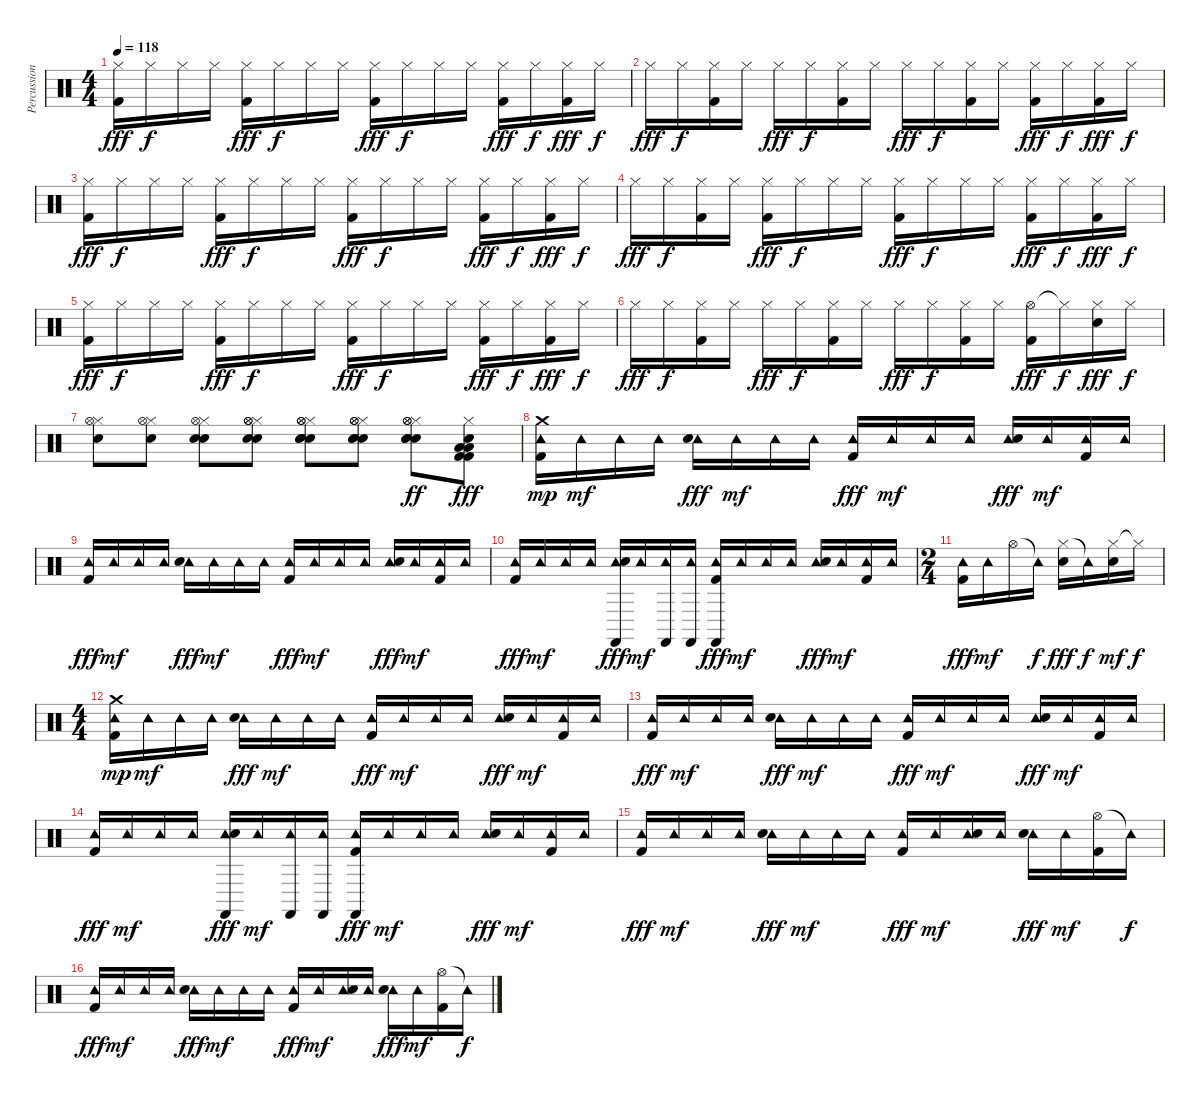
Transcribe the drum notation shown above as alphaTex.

\track ("Percussion" "Percussion") {instrument percussion}
\staff {score}
\articulation defaults
\ts (4 4)
\tempo 118
\clef neutral
\ks c
("Hi-Hat (closed)" "Kick (hit) 2").16{dy fff} "Hi-Hat (closed)".16{dy f} "Hi-Hat (closed)".16 "Hi-Hat (closed)".16 ("Hi-Hat (closed)" "Kick (hit) 2").16{dy fff} "Hi-Hat (closed)".16{dy f} "Hi-Hat (closed)".16 "Hi-Hat (closed)".16 ("Hi-Hat (closed)" "Kick (hit) 2").16{dy fff} "Hi-Hat (closed)".16{dy f} "Hi-Hat (closed)".16 "Hi-Hat (closed)".16 ("Hi-Hat (closed)" "Kick (hit) 2").16{dy fff} "Hi-Hat (closed)".16{dy f} ("Hi-Hat (closed)" "Kick (hit) 2").16{dy fff} "Hi-Hat (closed)".16{dy f} |
"Hi-Hat (closed)".16{dy fff} "Hi-Hat (closed)".16{dy f} ("Hi-Hat (closed)" "Kick (hit) 2").16 "Hi-Hat (closed)".16 "Hi-Hat (closed)".16{dy fff} "Hi-Hat (closed)".16{dy f} ("Hi-Hat (closed)" "Kick (hit) 2").16 "Hi-Hat (closed)".16 "Hi-Hat (closed)".16{dy fff} "Hi-Hat (closed)".16{dy f} ("Hi-Hat (closed)" "Kick (hit) 2").16 "Hi-Hat (closed)".16 ("Hi-Hat (closed)" "Kick (hit) 2").16{dy fff} "Hi-Hat (closed)".16{dy f} ("Hi-Hat (closed)" "Kick (hit) 2").16{dy fff} "Hi-Hat (closed)".16{dy f} |
("Hi-Hat (closed)" "Kick (hit) 2").16{dy fff} "Hi-Hat (closed)".16{dy f} "Hi-Hat (closed)".16 "Hi-Hat (closed)".16 ("Hi-Hat (closed)" "Kick (hit) 2").16{dy fff} "Hi-Hat (closed)".16{dy f} "Hi-Hat (closed)".16 "Hi-Hat (closed)".16 ("Hi-Hat (closed)" "Kick (hit) 2").16{dy fff} "Hi-Hat (closed)".16{dy f} "Hi-Hat (closed)".16 "Hi-Hat (closed)".16 ("Hi-Hat (closed)" "Kick (hit) 2").16{dy fff} "Hi-Hat (closed)".16{dy f} ("Hi-Hat (closed)" "Kick (hit) 2").16{dy fff} "Hi-Hat (closed)".16{dy f} |
"Hi-Hat (closed)".16{dy fff} "Hi-Hat (closed)".16{dy f} ("Hi-Hat (closed)" "Kick (hit) 2").16 "Hi-Hat (closed)".16 ("Hi-Hat (closed)" "Kick (hit) 2").16{dy fff} "Hi-Hat (closed)".16{dy f} "Hi-Hat (closed)".16 "Hi-Hat (closed)".16 ("Hi-Hat (closed)" "Kick (hit) 2").16{dy fff} "Hi-Hat (closed)".16{dy f} "Hi-Hat (closed)".16 "Hi-Hat (closed)".16 ("Hi-Hat (closed)" "Kick (hit) 2").16{dy fff} "Hi-Hat (closed)".16{dy f} ("Hi-Hat (closed)" "Kick (hit) 2").16{dy fff} "Hi-Hat (closed)".16{dy f} |
("Hi-Hat (closed)" "Kick (hit) 2").16{dy fff} "Hi-Hat (closed)".16{dy f} "Hi-Hat (closed)".16 "Hi-Hat (closed)".16 ("Hi-Hat (closed)" "Kick (hit) 2").16{dy fff} "Hi-Hat (closed)".16{dy f} "Hi-Hat (closed)".16 "Hi-Hat (closed)".16 ("Hi-Hat (closed)" "Kick (hit) 2").16{dy fff} "Hi-Hat (closed)".16{dy f} "Hi-Hat (closed)".16 "Hi-Hat (closed)".16 ("Hi-Hat (closed)" "Kick (hit) 2").16{dy fff} "Hi-Hat (closed)".16{dy f} ("Hi-Hat (closed)" "Kick (hit) 2").16{dy fff} "Hi-Hat (closed)".16{dy f} |
"Hi-Hat (closed)".16{dy fff} "Hi-Hat (closed)".16{dy f} ("Hi-Hat (closed)" "Kick (hit) 2").16 "Hi-Hat (closed)".16 "Hi-Hat (closed)".16{dy fff} "Hi-Hat (closed)".16{dy f} ("Hi-Hat (closed)" "Kick (hit) 2").16 "Hi-Hat (closed)".16 "Hi-Hat (closed)".16{dy fff} "Hi-Hat (closed)".16{dy f} ("Hi-Hat (closed)" "Kick (hit) 2").16 "Hi-Hat (closed)".16 ("Hi-Hat (open)" "Kick (hit) 2").16{dy fff} "Hi-Hat (closed)"{t}.16{dy f} ("Hi-Hat (closed)" "Electric Snare (hit)").16{dy fff} "Hi-Hat (closed)".16{dy f} |
("Hi-Hat (closed)" "Electric Snare (hit)" "Hi-Hat (open)").8 ("Hi-Hat (closed)" "Electric Snare (hit)" "Hi-Hat (open)").8 ("Hi-Hat (closed)" "Electric Snare (hit)" "Hi-Hat (open)" "Electric Snare (hit)").8 ("Hi-Hat (closed)" "Electric Snare (hit)" "Hi-Hat (open)" "Electric Snare (hit)" "Hi-Hat (open)").8 ("Hi-Hat (closed)" "Electric Snare (hit)" "Hi-Hat (open)" "Electric Snare (hit)" "Hi-Hat (open)" "Electric Snare (hit)").8 ("Hi-Hat (closed)" "Electric Snare (hit)" "Hi-Hat (open)" "Electric Snare (hit)" "Hi-Hat (open)" "Electric Snare (hit)").8 ("Hi-Hat (closed)" "Electric Snare (hit)" "Hi-Hat (open)" "Electric Snare (hit)" "Hi-Hat (open)" "Electric Snare (hit)").8{dy ff} ("Hi-Hat (closed)" "Electric Snare (hit)" "Low Floor Tom (hit)" "Kick (hit) 2" "Kick (hit) 2" "Low Floor Tom (hit)").8{dy fff} |
("Tambourine (hit)" "Kick (hit) 2" "Crash medium (hit)").16{dy mp} "Tambourine (hit)".16{dy mf} "Tambourine (hit)".16 "Tambourine (hit)".16 ("Tambourine (hit)" "Electric Snare (hit)").16{dy fff} "Tambourine (hit)".16{dy mf} "Tambourine (hit)".16 "Tambourine (hit)".16 ("Tambourine (hit)" "Kick (hit) 2").16{dy fff} "Tambourine (hit)".16{dy mf} "Tambourine (hit)".16 "Tambourine (hit)".16 ("Tambourine (hit)" "Electric Snare (hit)").16{dy fff} "Tambourine (hit)".16{dy mf} ("Tambourine (hit)" "Kick (hit) 2").16 "Tambourine (hit)".16 |
("Tambourine (hit)" "Kick (hit) 2").16{dy fff} "Tambourine (hit)".16{dy mf} "Tambourine (hit)".16 "Tambourine (hit)".16 ("Tambourine (hit)" "Electric Snare (hit)").16{dy fff} "Tambourine (hit)".16{dy mf} "Tambourine (hit)".16 "Tambourine (hit)".16 ("Tambourine (hit)" "Kick (hit) 2").16{dy fff} "Tambourine (hit)".16{dy mf} "Tambourine (hit)".16 "Tambourine (hit)".16 ("Tambourine (hit)" "Electric Snare (hit)").16{dy fff} "Tambourine (hit)".16{dy mf} ("Tambourine (hit)" "Kick (hit) 2").16 "Tambourine (hit)".16 |
("Tambourine (hit)" "Kick (hit) 2").16{dy fff} "Tambourine (hit)".16{dy mf} "Tambourine (hit)".16 "Tambourine (hit)".16 ("Tambourine (hit)" "Electric Snare (hit)" "Castanets (hit)").16{dy fff} "Tambourine (hit)".16{dy mf} ("Tambourine (hit)" "Castanets (hit)").16 ("Tambourine (hit)" "Castanets (hit)").16 ("Tambourine (hit)" "Kick (hit) 2" "Castanets (hit)").16{dy fff} "Tambourine (hit)".16{dy mf} "Tambourine (hit)".16 "Tambourine (hit)".16 ("Tambourine (hit)" "Electric Snare (hit)").16{dy fff} "Tambourine (hit)".16{dy mf} ("Tambourine (hit)" "Kick (hit) 2").16 "Tambourine (hit)".16 |
\ts (2 4)
("Tambourine (hit)" "Kick (hit) 2").16{dy fff} "Tambourine (hit)".16{dy mf} "Hi-Hat (open)".16 "Tambourine (hit)"{t}.16{dy f} ("Hi-Hat (closed)" "Electric Snare (hit)").16{dy fff} "Tambourine (hit)"{t}.16{dy f} ("Hi-Hat (closed)" "Electric Snare (hit)").16{dy mf} "Hi-Hat (closed)"{t}.16{dy f} |
\ts (4 4)
("Tambourine (hit)" "Kick (hit) 2" "Crash medium (hit)").16{dy mp} "Tambourine (hit)".16{dy mf} "Tambourine (hit)".16 "Tambourine (hit)".16 ("Tambourine (hit)" "Electric Snare (hit)").16{dy fff} "Tambourine (hit)".16{dy mf} "Tambourine (hit)".16 "Tambourine (hit)".16 ("Tambourine (hit)" "Kick (hit) 2").16{dy fff} "Tambourine (hit)".16{dy mf} "Tambourine (hit)".16 "Tambourine (hit)".16 ("Tambourine (hit)" "Electric Snare (hit)").16{dy fff} "Tambourine (hit)".16{dy mf} ("Tambourine (hit)" "Kick (hit) 2").16 "Tambourine (hit)".16 |
("Tambourine (hit)" "Kick (hit) 2").16{dy fff} "Tambourine (hit)".16{dy mf} "Tambourine (hit)".16 "Tambourine (hit)".16 ("Tambourine (hit)" "Electric Snare (hit)").16{dy fff} "Tambourine (hit)".16{dy mf} "Tambourine (hit)".16 "Tambourine (hit)".16 ("Tambourine (hit)" "Kick (hit) 2").16{dy fff} "Tambourine (hit)".16{dy mf} "Tambourine (hit)".16 "Tambourine (hit)".16 ("Tambourine (hit)" "Electric Snare (hit)").16{dy fff} "Tambourine (hit)".16{dy mf} ("Tambourine (hit)" "Kick (hit) 2").16 "Tambourine (hit)".16 |
("Tambourine (hit)" "Kick (hit) 2").16{dy fff} "Tambourine (hit)".16{dy mf} "Tambourine (hit)".16 "Tambourine (hit)".16 ("Tambourine (hit)" "Electric Snare (hit)" "Castanets (hit)").16{dy fff} "Tambourine (hit)".16{dy mf} ("Tambourine (hit)" "Castanets (hit)").16 ("Tambourine (hit)" "Castanets (hit)").16 ("Tambourine (hit)" "Kick (hit) 2" "Castanets (hit)").16{dy fff} "Tambourine (hit)".16{dy mf} "Tambourine (hit)".16 "Tambourine (hit)".16 ("Tambourine (hit)" "Electric Snare (hit)").16{dy fff} "Tambourine (hit)".16{dy mf} ("Tambourine (hit)" "Kick (hit) 2").16 "Tambourine (hit)".16 |
("Tambourine (hit)" "Kick (hit) 2").16{dy fff} "Tambourine (hit)".16{dy mf} "Tambourine (hit)".16 "Tambourine (hit)".16 ("Tambourine (hit)" "Electric Snare (hit)").16{dy fff} "Tambourine (hit)".16{dy mf} "Tambourine (hit)".16 "Tambourine (hit)".16 ("Tambourine (hit)" "Kick (hit) 2").16{dy fff} "Tambourine (hit)".16{dy mf} ("Tambourine (hit)" "Electric Snare (hit)").16 "Tambourine (hit)".16 ("Tambourine (hit)" "Electric Snare (hit)").16{dy fff} "Tambourine (hit)".16{dy mf} ("Hi-Hat (open)" "Kick (hit) 2").16 "Tambourine (hit)"{t}.16{dy f} |
("Tambourine (hit)" "Kick (hit) 2").16{dy fff} "Tambourine (hit)".16{dy mf} "Tambourine (hit)".16 "Tambourine (hit)".16 ("Tambourine (hit)" "Electric Snare (hit)").16{dy fff} "Tambourine (hit)".16{dy mf} "Tambourine (hit)".16 "Tambourine (hit)".16 ("Tambourine (hit)" "Kick (hit) 2").16{dy fff} "Tambourine (hit)".16{dy mf} ("Tambourine (hit)" "Electric Snare (hit)").16 "Tambourine (hit)".16 ("Tambourine (hit)" "Electric Snare (hit)").16{dy fff} "Tambourine (hit)".16{dy mf} ("Hi-Hat (open)" "Kick (hit) 2").16 "Tambourine (hit)"{t}.16{dy f}
